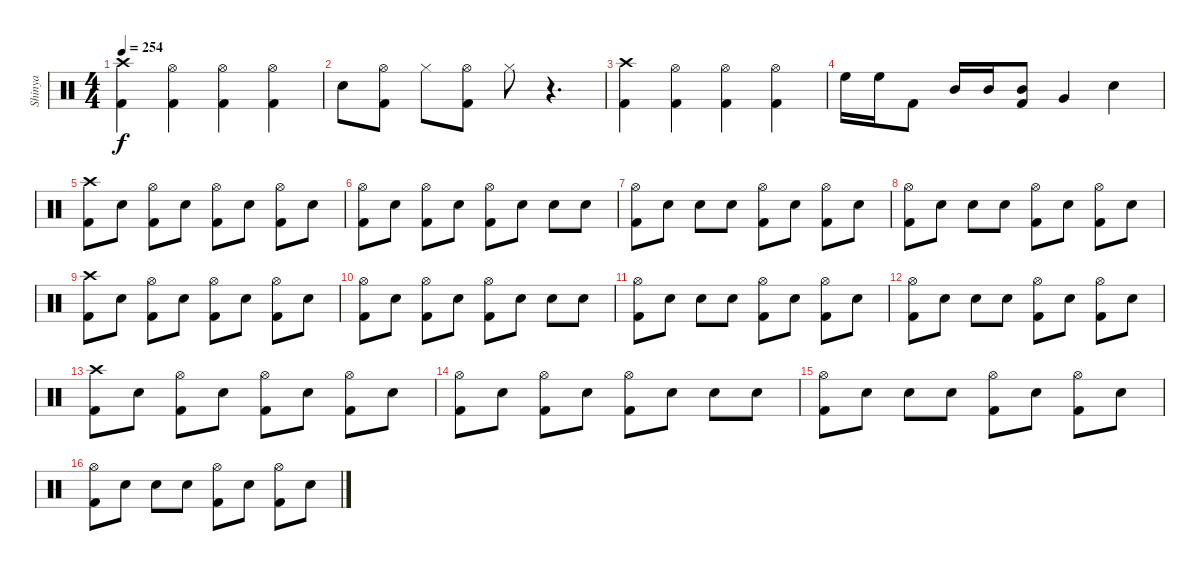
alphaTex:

\track ("Shinya" "Shinya") {instrument percussion}
\staff {score}
\articulation defaults
\ts (4 4)
\tempo 254
\clef neutral
\ks c
("Kick (hit) 2" "Crash high (hit)").4{dy f} ("Hi-Hat (open)" "Kick (hit) 2").4 ("Hi-Hat (open)" "Kick (hit) 2").4 ("Hi-Hat (open)" "Kick (hit) 2").4 |
"Electric Snare (hit)".8 ("Hi-Hat (open)" "Kick (hit) 2").8 "Hi-Hat (closed)".8 ("Hi-Hat (open)" "Kick (hit) 2").8 "Hi-Hat (closed)".8 r.4{d} |
("Kick (hit) 2" "Crash high (hit)").4 ("Hi-Hat (open)" "Kick (hit) 2").4 ("Hi-Hat (open)" "Kick (hit) 2").4 ("Hi-Hat (open)" "Kick (hit) 2").4 |
"High Floor Tom (hit)".16 "High Floor Tom (hit)".16 "Kick (hit) 2".8 "Mid Tom (hit)".16 "Mid Tom (hit)".16 ("Kick (hit) 2" "Mid Tom (hit)").8 "Very Low Tom (hit)".4 "Electric Snare (hit)".4 |
("Crash high (hit)" "Kick (hit) 2").8 "Electric Snare (hit)".8 ("Hi-Hat (open)" "Kick (hit) 2").8 "Electric Snare (hit)".8 ("Hi-Hat (open)" "Kick (hit) 2").8 "Electric Snare (hit)".8 ("Hi-Hat (open)" "Kick (hit) 2").8 "Electric Snare (hit)".8 |
("Hi-Hat (open)" "Kick (hit) 2").8 "Electric Snare (hit)".8 ("Hi-Hat (open)" "Kick (hit) 2").8 "Electric Snare (hit)".8 ("Hi-Hat (open)" "Kick (hit) 2").8 "Electric Snare (hit)".8 "Electric Snare (hit)".8 "Electric Snare (hit)".8 |
("Hi-Hat (open)" "Kick (hit) 2").8 "Electric Snare (hit)".8 "Electric Snare (hit)".8 "Electric Snare (hit)".8 ("Hi-Hat (open)" "Kick (hit) 2").8 "Electric Snare (hit)".8 ("Hi-Hat (open)" "Kick (hit) 2").8 "Electric Snare (hit)".8 |
("Hi-Hat (open)" "Kick (hit) 2").8 "Electric Snare (hit)".8 "Electric Snare (hit)".8 "Electric Snare (hit)".8 ("Hi-Hat (open)" "Kick (hit) 2").8 "Electric Snare (hit)".8 ("Hi-Hat (open)" "Kick (hit) 2").8 "Electric Snare (hit)".8 |
("Crash high (hit)" "Kick (hit) 2").8 "Electric Snare (hit)".8 ("Hi-Hat (open)" "Kick (hit) 2").8 "Electric Snare (hit)".8 ("Hi-Hat (open)" "Kick (hit) 2").8 "Electric Snare (hit)".8 ("Hi-Hat (open)" "Kick (hit) 2").8 "Electric Snare (hit)".8 |
("Hi-Hat (open)" "Kick (hit) 2").8 "Electric Snare (hit)".8 ("Hi-Hat (open)" "Kick (hit) 2").8 "Electric Snare (hit)".8 ("Hi-Hat (open)" "Kick (hit) 2").8 "Electric Snare (hit)".8 "Electric Snare (hit)".8 "Electric Snare (hit)".8 |
("Hi-Hat (open)" "Kick (hit) 2").8 "Electric Snare (hit)".8 "Electric Snare (hit)".8 "Electric Snare (hit)".8 ("Hi-Hat (open)" "Kick (hit) 2").8 "Electric Snare (hit)".8 ("Hi-Hat (open)" "Kick (hit) 2").8 "Electric Snare (hit)".8 |
("Hi-Hat (open)" "Kick (hit) 2").8 "Electric Snare (hit)".8 "Electric Snare (hit)".8 "Electric Snare (hit)".8 ("Hi-Hat (open)" "Kick (hit) 2").8 "Electric Snare (hit)".8 ("Hi-Hat (open)" "Kick (hit) 2").8 "Electric Snare (hit)".8 |
("Crash high (hit)" "Kick (hit) 2").8 "Electric Snare (hit)".8 ("Hi-Hat (open)" "Kick (hit) 2").8 "Electric Snare (hit)".8 ("Hi-Hat (open)" "Kick (hit) 2").8 "Electric Snare (hit)".8 ("Hi-Hat (open)" "Kick (hit) 2").8 "Electric Snare (hit)".8 |
("Hi-Hat (open)" "Kick (hit) 2").8 "Electric Snare (hit)".8 ("Hi-Hat (open)" "Kick (hit) 2").8 "Electric Snare (hit)".8 ("Hi-Hat (open)" "Kick (hit) 2").8 "Electric Snare (hit)".8 "Electric Snare (hit)".8 "Electric Snare (hit)".8 |
("Hi-Hat (open)" "Kick (hit) 2").8 "Electric Snare (hit)".8 "Electric Snare (hit)".8 "Electric Snare (hit)".8 ("Hi-Hat (open)" "Kick (hit) 2").8 "Electric Snare (hit)".8 ("Hi-Hat (open)" "Kick (hit) 2").8 "Electric Snare (hit)".8 |
("Hi-Hat (open)" "Kick (hit) 2").8 "Electric Snare (hit)".8 "Electric Snare (hit)".8 "Electric Snare (hit)".8 ("Hi-Hat (open)" "Kick (hit) 2").8 "Electric Snare (hit)".8 ("Hi-Hat (open)" "Kick (hit) 2").8 "Electric Snare (hit)".8
